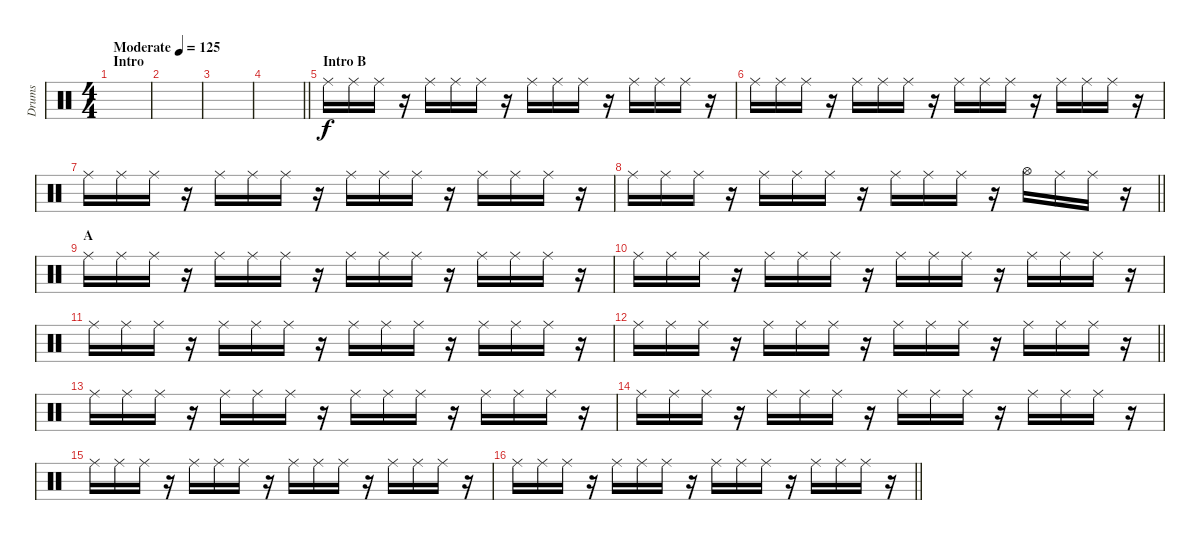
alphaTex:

\track ("Drums" "Drums") {instrument percussion}
\staff {score}
\articulation defaults
\ts (4 4)
\section ("" "Intro")
\tempo (125 "Moderate")
\clef neutral
\ks c
|
|
|
\barLineRight lightlight
|
\section ("" "Intro B")
"Ride (middle)".16 "Ride (middle)".16 "Ride (middle)".16 r.16 "Ride (middle)".16 "Ride (middle)".16 "Ride (middle)".16 r.16 "Ride (middle)".16 "Ride (middle)".16 "Ride (middle)".16 r.16 "Ride (middle)".16 "Ride (middle)".16 "Ride (middle)".16 r.16 |
"Ride (middle)".16 "Ride (middle)".16 "Ride (middle)".16 r.16 "Ride (middle)".16 "Ride (middle)".16 "Ride (middle)".16 r.16 "Ride (middle)".16 "Ride (middle)".16 "Ride (middle)".16 r.16 "Ride (middle)".16 "Ride (middle)".16 "Ride (middle)".16 r.16 |
"Ride (middle)".16 "Ride (middle)".16 "Ride (middle)".16 r.16 "Ride (middle)".16 "Ride (middle)".16 "Ride (middle)".16 r.16 "Ride (middle)".16 "Ride (middle)".16 "Ride (middle)".16 r.16 "Ride (middle)".16 "Ride (middle)".16 "Ride (middle)".16 r.16 |
\barLineRight lightlight "Ride (middle)".16 "Ride (middle)".16 "Ride (middle)".16
r.16 "Ride (middle)".16 "Ride (middle)".16 "Ride (middle)".16 r.16 "Ride (middle)".16 "Ride (middle)".16 "Ride (middle)".16 r.16 "Hi-Hat (open)".16 "Ride (middle)".16 "Ride (middle)".16 r.16 |
\section ("" "A")
"Ride (middle)".16{dy f} "Ride (middle)".16 "Ride (middle)".16 r.16 "Ride (middle)".16 "Ride (middle)".16 "Ride (middle)".16 r.16 "Ride (middle)".16 "Ride (middle)".16 "Ride (middle)".16 r.16 "Ride (middle)".16 "Ride (middle)".16 "Ride (middle)".16 r.16 |
"Ride (middle)".16 "Ride (middle)".16 "Ride (middle)".16 r.16 "Ride (middle)".16 "Ride (middle)".16 "Ride (middle)".16 r.16 "Ride (middle)".16 "Ride (middle)".16 "Ride (middle)".16 r.16 "Ride (middle)".16 "Ride (middle)".16 "Ride (middle)".16 r.16 |
"Ride (middle)".16 "Ride (middle)".16 "Ride (middle)".16 r.16 "Ride (middle)".16 "Ride (middle)".16 "Ride (middle)".16 r.16 "Ride (middle)".16 "Ride (middle)".16 "Ride (middle)".16 r.16 "Ride (middle)".16 "Ride (middle)".16 "Ride (middle)".16 r.16 |
\barLineRight lightlight "Ride (middle)".16 "Ride (middle)".16 "Ride (middle)".16
r.16 "Ride (middle)".16 "Ride (middle)".16 "Ride (middle)".16 r.16 "Ride (middle)".16 "Ride (middle)".16 "Ride (middle)".16 r.16 "Ride (middle)".16 "Ride (middle)".16 "Ride (middle)".16 r.16 |
"Ride (middle)".16 "Ride (middle)".16 "Ride (middle)".16 r.16 "Ride (middle)".16 "Ride (middle)".16 "Ride (middle)".16 r.16 "Ride (middle)".16 "Ride (middle)".16 "Ride (middle)".16 r.16 "Ride (middle)".16 "Ride (middle)".16 "Ride (middle)".16 r.16 |
"Ride (middle)".16 "Ride (middle)".16 "Ride (middle)".16 r.16 "Ride (middle)".16 "Ride (middle)".16 "Ride (middle)".16 r.16 "Ride (middle)".16 "Ride (middle)".16 "Ride (middle)".16 r.16 "Ride (middle)".16 "Ride (middle)".16 "Ride (middle)".16 r.16 |
"Ride (middle)".16 "Ride (middle)".16 "Ride (middle)".16 r.16 "Ride (middle)".16 "Ride (middle)".16 "Ride (middle)".16 r.16 "Ride (middle)".16 "Ride (middle)".16 "Ride (middle)".16 r.16 "Ride (middle)".16 "Ride (middle)".16 "Ride (middle)".16 r.16 |
\barLineRight lightlight "Ride (middle)".16 "Ride (middle)".16 "Ride (middle)".16
r.16 "Ride (middle)".16 "Ride (middle)".16 "Ride (middle)".16 r.16 "Ride (middle)".16 "Ride (middle)".16 "Ride (middle)".16 r.16 "Ride (middle)".16 "Ride (middle)".16 "Ride (middle)".16 r.16
